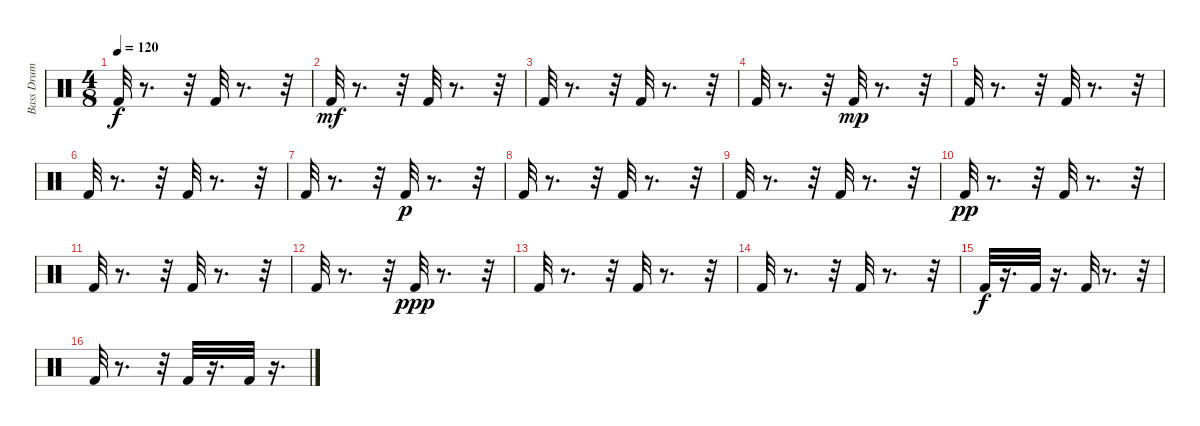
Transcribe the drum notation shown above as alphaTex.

\track ("Bass Drum" "Bass Drum") {instrument percussion}
\staff {score}
\articulation defaults
\ts (4 8)
\tempo 120
\clef neutral
\ks c "Kick (hit) 2".32{dy f}
r.8{d} r.32 "Kick (hit) 2".32 r.8{d} r.32 |
"Kick (hit) 2".32{dy mf} r.8{d} r.32 "Kick (hit) 2".32 r.8{d} r.32 |
"Kick (hit) 2".32 r.8{d} r.32 "Kick (hit) 2".32 r.8{d} r.32 |
"Kick (hit) 2".32 r.8{d} r.32 "Kick (hit) 2".32{dy mp} r.8{d} r.32 |
"Kick (hit) 2".32 r.8{d} r.32 "Kick (hit) 2".32 r.8{d} r.32 |
"Kick (hit) 2".32 r.8{d} r.32 "Kick (hit) 2".32 r.8{d} r.32 |
"Kick (hit) 2".32 r.8{d} r.32 "Kick (hit) 2".32{dy p} r.8{d} r.32 |
"Kick (hit) 2".32 r.8{d} r.32 "Kick (hit) 2".32 r.8{d} r.32 |
"Kick (hit) 2".32 r.8{d} r.32 "Kick (hit) 2".32 r.8{d} r.32 |
"Kick (hit) 2".32{dy pp} r.8{d} r.32 "Kick (hit) 2".32 r.8{d} r.32 |
"Kick (hit) 2".32 r.8{d} r.32 "Kick (hit) 2".32 r.8{d} r.32 |
"Kick (hit) 2".32 r.8{d} r.32 "Kick (hit) 2".32{dy ppp} r.8{d} r.32 |
"Kick (hit) 2".32 r.8{d} r.32 "Kick (hit) 2".32 r.8{d} r.32 |
"Kick (hit) 2".32 r.8{d} r.32 "Kick (hit) 2".32 r.8{d} r.32 |
"Kick (hit) 2".32{dy f} r.16{d} "Kick (hit) 2".32 r.16{d} "Kick (hit) 2".32 r.8{d} r.32 |
"Kick (hit) 2".32 r.8{d} r.32 "Kick (hit) 2".32 r.16{d} "Kick (hit) 2".32 r.16{d}
